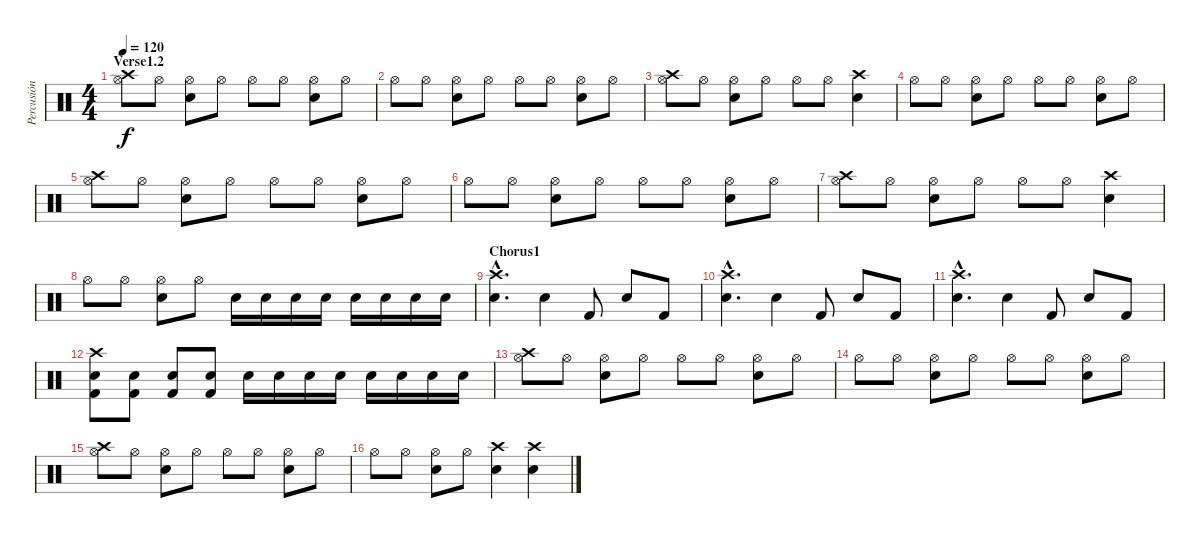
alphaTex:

\track ("Percusión" "Percusión") {instrument percussion}
\staff {score}
\articulation defaults
\ts (4 4)
\section ("" "Verse1.2")
\tempo 120
\clef neutral
\ks c
("Hi-Hat (open)" "Crash high (hit)").8{dy f} "Hi-Hat (open)".8 ("Hi-Hat (open)" "Snare (hit) 2").8 "Hi-Hat (open)".8 "Hi-Hat (open)".8 "Hi-Hat (open)".8 ("Hi-Hat (open)" "Snare (hit) 2").8 "Hi-Hat (open)".8 |
"Hi-Hat (open)".8 "Hi-Hat (open)".8 ("Hi-Hat (open)" "Snare (hit) 2").8 "Hi-Hat (open)".8 "Hi-Hat (open)".8 "Hi-Hat (open)".8 ("Hi-Hat (open)" "Snare (hit) 2").8 "Hi-Hat (open)".8 |
("Hi-Hat (open)" "Crash high (hit)").8 "Hi-Hat (open)".8 ("Hi-Hat (open)" "Snare (hit) 2").8 "Hi-Hat (open)".8 "Hi-Hat (open)".8 "Hi-Hat (open)".8 ("Crash high (hit)" "Snare (hit) 2").4 |
"Hi-Hat (open)".8 "Hi-Hat (open)".8 ("Hi-Hat (open)" "Snare (hit) 2").8 "Hi-Hat (open)".8 "Hi-Hat (open)".8 "Hi-Hat (open)".8 ("Hi-Hat (open)" "Snare (hit) 2").8 "Hi-Hat (open)".8 |
("Hi-Hat (open)" "Crash high (hit)").8 "Hi-Hat (open)".8 ("Hi-Hat (open)" "Snare (hit) 2").8 "Hi-Hat (open)".8 "Hi-Hat (open)".8 "Hi-Hat (open)".8 ("Hi-Hat (open)" "Snare (hit) 2").8 "Hi-Hat (open)".8 |
"Hi-Hat (open)".8 "Hi-Hat (open)".8 ("Hi-Hat (open)" "Snare (hit) 2").8 "Hi-Hat (open)".8 "Hi-Hat (open)".8 "Hi-Hat (open)".8 ("Hi-Hat (open)" "Snare (hit) 2").8 "Hi-Hat (open)".8 |
("Hi-Hat (open)" "Crash high (hit)").8 "Hi-Hat (open)".8 ("Hi-Hat (open)" "Snare (hit) 2").8 "Hi-Hat (open)".8 "Hi-Hat (open)".8 "Hi-Hat (open)".8 ("Crash high (hit)" "Snare (hit) 2").4 |
"Hi-Hat (open)".8 "Hi-Hat (open)".8 ("Hi-Hat (open)" "Snare (hit) 2").8 "Hi-Hat (open)".8 "Snare (hit) 2".16 "Snare (hit) 2".16 "Snare (hit) 2".16 "Snare (hit) 2".16 "Snare (hit) 2".16 "Snare (hit) 2".16 "Snare (hit) 2".16 "Snare (hit) 2".16 |
\section ("" "Chorus1")
("Crash high (hit)"{hac} "Snare (hit) 2"{hac}).4{d} "Snare (hit) 2".4 "Kick (hit) 2".8 "Snare (hit) 2".8 "Kick (hit) 2".8 |
("Crash high (hit)"{hac} "Snare (hit) 2"{hac}).4{d} "Snare (hit) 2".4 "Kick (hit) 2".8 "Snare (hit) 2".8 "Kick (hit) 2".8 |
("Crash high (hit)"{hac} "Snare (hit) 2"{hac}).4{d} "Snare (hit) 2".4 "Kick (hit) 2".8 "Snare (hit) 2".8 "Kick (hit) 2".8 |
("Crash high (hit)" "Snare (hit) 2" "Kick (hit) 2").8 ("Snare (hit) 2" "Kick (hit) 2").8 ("Snare (hit) 2" "Kick (hit) 2").8 ("Snare (hit) 2" "Kick (hit) 2").8 "Snare (hit) 2".16 "Snare (hit) 2"{x}.16 "Snare (hit) 2".16 "Snare (hit) 2".16 "Snare (hit) 2".16 "Snare (hit) 2".16 "Snare (hit) 2".16 "Snare (hit) 2".16 |
("Hi-Hat (open)" "Crash high (hit)").8 "Hi-Hat (open)".8 ("Hi-Hat (open)" "Snare (hit) 2").8 "Hi-Hat (open)".8 "Hi-Hat (open)".8 "Hi-Hat (open)".8 ("Hi-Hat (open)" "Snare (hit) 2").8 "Hi-Hat (open)".8 |
"Hi-Hat (open)".8 "Hi-Hat (open)".8 ("Hi-Hat (open)" "Snare (hit) 2").8 "Hi-Hat (open)".8 "Hi-Hat (open)".8 "Hi-Hat (open)".8 ("Hi-Hat (open)" "Snare (hit) 2").8 "Hi-Hat (open)".8 |
("Hi-Hat (open)" "Crash high (hit)").8 "Hi-Hat (open)".8 ("Hi-Hat (open)" "Snare (hit) 2").8 "Hi-Hat (open)".8 "Hi-Hat (open)".8 "Hi-Hat (open)".8 ("Hi-Hat (open)" "Snare (hit) 2").8 "Hi-Hat (open)".8 |
"Hi-Hat (open)".8 "Hi-Hat (open)".8 ("Hi-Hat (open)" "Snare (hit) 2").8 "Hi-Hat (open)".8 ("Snare (hit) 2" "Crash high (hit)").4 ("Snare (hit) 2" "Crash high (hit)").4
